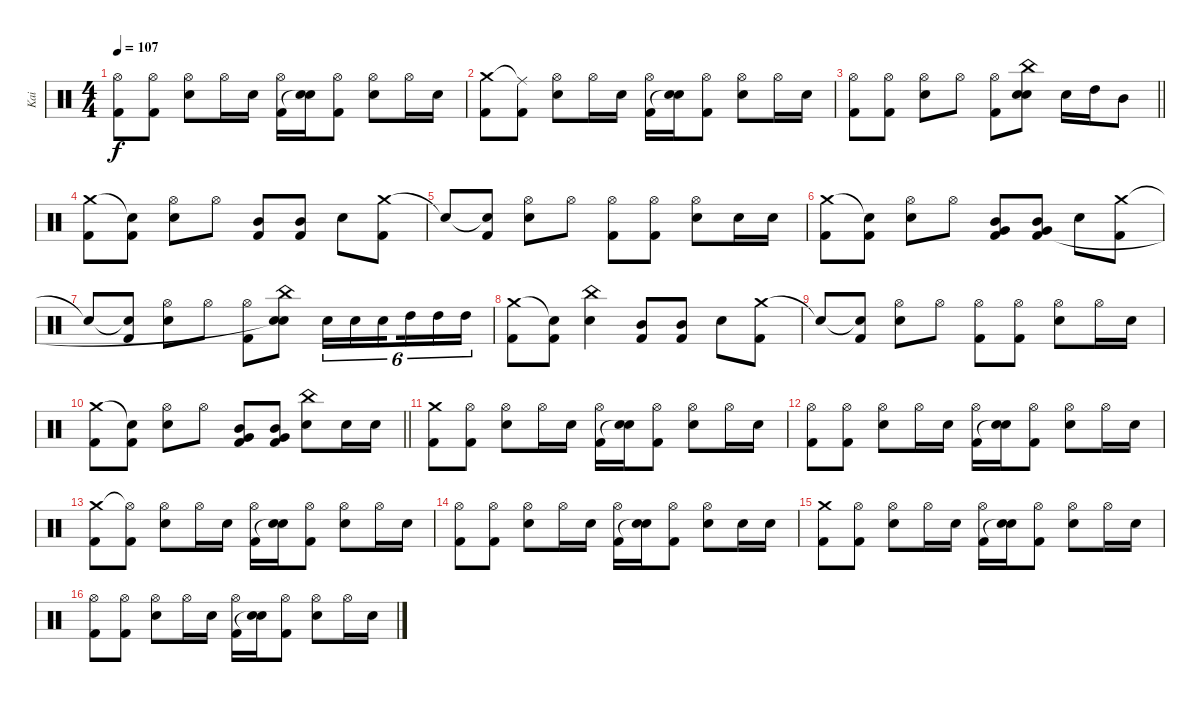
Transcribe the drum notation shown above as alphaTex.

\track ("Kai" "Kai") {instrument percussion}
\staff {score}
\articulation defaults
\ts (4 4)
\tempo 107
\clef neutral
\ks c
("Hi-Hat (open)" "Kick (hit) 2").8{dy f} ("Hi-Hat (open)" "Kick (hit) 2").8 ("Hi-Hat (open)" "Snare (hit) 2").8 "Hi-Hat (open)".16 "Snare (hit) 2".16 ("Hi-Hat (open)" "Kick (hit) 2").16 ("Snare (hit) 2" "Snare (hit)"{t}).16 ("Hi-Hat (open)" "Kick (hit) 2").8 ("Hi-Hat (open)" "Snare (hit) 2").8 "Hi-Hat (open)".16 "Snare (hit) 2".16 |
("Crash medium (hit)" "Kick (hit) 2").8 ("Ride (middle)"{t} "Kick (hit) 2").8 ("Hi-Hat (open)" "Snare (hit) 2").8 "Hi-Hat (open)".16 "Snare (hit) 2".16 ("Hi-Hat (open)" "Kick (hit) 2").16 ("Snare (hit) 2" "Snare (hit)"{t}).16 ("Hi-Hat (open)" "Kick (hit) 2").8 ("Hi-Hat (open)" "Snare (hit) 2").8 "Hi-Hat (open)".16 "Snare (hit) 2".16 |
\barLineRight lightlight
("Hi-Hat (open)" "Kick (hit) 2").8 ("Hi-Hat (open)" "Kick (hit) 2").8 ("Hi-Hat (open)" "Snare (hit) 2").8 "Hi-Hat (open)".8 ("Hi-Hat (open)" "Kick (hit) 2").8 ("China (hit)" "Snare (hit) 2" "Snare (hit)").8 "Snare (hit) 2".16 "High Tom (hit)".16 "Mid Tom (hit)".8 |
("Crash medium (hit)" "Kick (hit) 2").8 ("Snare (hit)"{t} "Kick (hit) 2").8 ("Hi-Hat (open)" "Snare (hit) 2").8 "Hi-Hat (open)".8 ("Mid Tom (hit)" "Kick (hit) 2").8 ("Mid Tom (hit)" "Kick (hit) 2").8 "Snare (hit) 2".8 ("Crash medium (hit)" "Kick (hit) 2").8 |
"Snare (hit)"{t}.8 ("Snare (hit)"{t} "Kick (hit) 2").8 ("Hi-Hat (open)" "Snare (hit) 2").8 "Hi-Hat (open)".8 ("Hi-Hat (open)" "Kick (hit) 2").8 ("Hi-Hat (open)" "Kick (hit) 2").8 ("Hi-Hat (open)" "Snare (hit) 2").8 "Snare (hit) 2".16 "Snare (hit) 2".16 |
("Crash medium (hit)" "Kick (hit) 2").8 ("Snare (hit)"{t} "Kick (hit) 2").8 ("Hi-Hat (open)" "Snare (hit) 2").8 "Hi-Hat (open)".8 ("Mid Tom (hit)" "Very Low Tom (hit)" "Kick (hit) 2").8 ("Mid Tom (hit)" "Very Low Tom (hit)" "Kick (hit) 2").8 "Snare (hit) 2".8 ("Crash medium (hit)" "Kick (hit) 2").8 |
"Snare (hit)"{t}.8 ("Snare (hit)"{t} "Kick (hit) 2").8 ("Hi-Hat (open)" "Snare (hit) 2").8 "Hi-Hat (open)".8 ("Hi-Hat (open)" "Kick (hit) 2").8 ("China (hit)" "Snare (hit) 2" "Snare (hit)"{t}).8 "Snare (hit) 2".16{tu (6 4)} "Snare (hit) 2".16{tu (6 4)} "Snare (hit) 2".16{tu (6 4) beam splitsecondary} "High Tom (hit)".16{tu (6 4)} "High Tom (hit)".16{tu (6 4)} "High Tom (hit)".16{tu (6 4)} |
("Crash medium (hit)" "Kick (hit) 2").8 ("Snare (hit)"{t} "Kick (hit) 2").8 ("China (hit)" "Snare (hit) 2").4 ("Mid Tom (hit)" "Kick (hit) 2").8 ("Mid Tom (hit)" "Kick (hit) 2").8 "Snare (hit) 2".8 ("Crash medium (hit)" "Kick (hit) 2").8 |
"Snare (hit)"{t}.8 ("Snare (hit)"{t} "Kick (hit) 2").8 ("Hi-Hat (open)" "Snare (hit) 2").8 "Hi-Hat (open)".8 ("Hi-Hat (open)" "Kick (hit) 2").8 ("Hi-Hat (open)" "Kick (hit) 2").8 ("Hi-Hat (open)" "Snare (hit) 2").8 "Hi-Hat (open)".16 "Snare (hit) 2".16 |
\barLineRight lightlight
("Crash medium (hit)" "Kick (hit) 2").8 ("Snare (hit)"{t} "Kick (hit) 2").8 ("Hi-Hat (open)" "Snare (hit) 2").8 "Hi-Hat (open)".8 ("Mid Tom (hit)" "Very Low Tom (hit)" "Kick (hit) 2").8 ("Mid Tom (hit)" "Very Low Tom (hit)" "Kick (hit) 2").8 ("China (hit)" "Snare (hit) 2").8 "Snare (hit) 2".16 "Snare (hit) 2".16 |
("Crash medium (hit)" "Kick (hit) 2").8 ("Hi-Hat (open)" "Kick (hit) 2").8 ("Hi-Hat (open)" "Snare (hit) 2").8 "Hi-Hat (open)".16 "Snare (hit) 2".16 ("Hi-Hat (open)" "Kick (hit) 2").16 ("Snare (hit) 2" "Snare (hit)"{t}).16 ("Hi-Hat (open)" "Kick (hit) 2").8 ("Hi-Hat (open)" "Snare (hit) 2").8 "Hi-Hat (open)".16 "Snare (hit) 2".16 |
("Hi-Hat (open)" "Kick (hit) 2").8 ("Hi-Hat (open)" "Kick (hit) 2").8 ("Hi-Hat (open)" "Snare (hit) 2").8 "Hi-Hat (open)".16 "Snare (hit) 2".16 ("Hi-Hat (open)" "Kick (hit) 2").16 ("Snare (hit) 2" "Snare (hit)"{t}).16 ("Hi-Hat (open)" "Kick (hit) 2").8 ("Hi-Hat (open)" "Snare (hit) 2").8 "Hi-Hat (open)".16 "Snare (hit) 2".16 |
("Crash medium (hit)" "Kick (hit) 2").8 ("Hi-Hat (open)"{t} "Kick (hit) 2").8 ("Hi-Hat (open)" "Snare (hit) 2").8 "Hi-Hat (open)".16 "Snare (hit) 2".16 ("Hi-Hat (open)" "Kick (hit) 2").16 ("Snare (hit) 2" "Snare (hit)"{t}).16 ("Hi-Hat (open)" "Kick (hit) 2").8 ("Hi-Hat (open)" "Snare (hit) 2").8 "Hi-Hat (open)".16 "Snare (hit) 2".16 |
("Hi-Hat (open)" "Kick (hit) 2").8 ("Hi-Hat (open)" "Kick (hit) 2").8 ("Hi-Hat (open)" "Snare (hit) 2").8 "Hi-Hat (open)".16 "Snare (hit) 2".16 ("Hi-Hat (open)" "Kick (hit) 2").16 ("Snare (hit) 2" "Snare (hit)"{t}).16 ("Hi-Hat (open)" "Kick (hit) 2").8 ("Hi-Hat (open)" "Snare (hit) 2").8 "Snare (hit) 2".16 "Snare (hit) 2".16 |
("Crash medium (hit)" "Kick (hit) 2").8 ("Hi-Hat (open)" "Kick (hit) 2").8 ("Hi-Hat (open)" "Snare (hit) 2").8 "Hi-Hat (open)".16 "Snare (hit) 2".16 ("Hi-Hat (open)" "Kick (hit) 2").16 ("Snare (hit) 2" "Snare (hit)"{t}).16 ("Hi-Hat (open)" "Kick (hit) 2").8 ("Hi-Hat (open)" "Snare (hit) 2").8 "Hi-Hat (open)".16 "Snare (hit) 2".16 |
("Hi-Hat (open)" "Kick (hit) 2").8 ("Hi-Hat (open)" "Kick (hit) 2").8 ("Hi-Hat (open)" "Snare (hit) 2").8 "Hi-Hat (open)".16 "Snare (hit) 2".16 ("Hi-Hat (open)" "Kick (hit) 2").16 ("Snare (hit) 2" "Snare (hit)"{t}).16 ("Hi-Hat (open)" "Kick (hit) 2").8 ("Hi-Hat (open)" "Snare (hit) 2").8 "Hi-Hat (open)".16 "Snare (hit) 2".16
